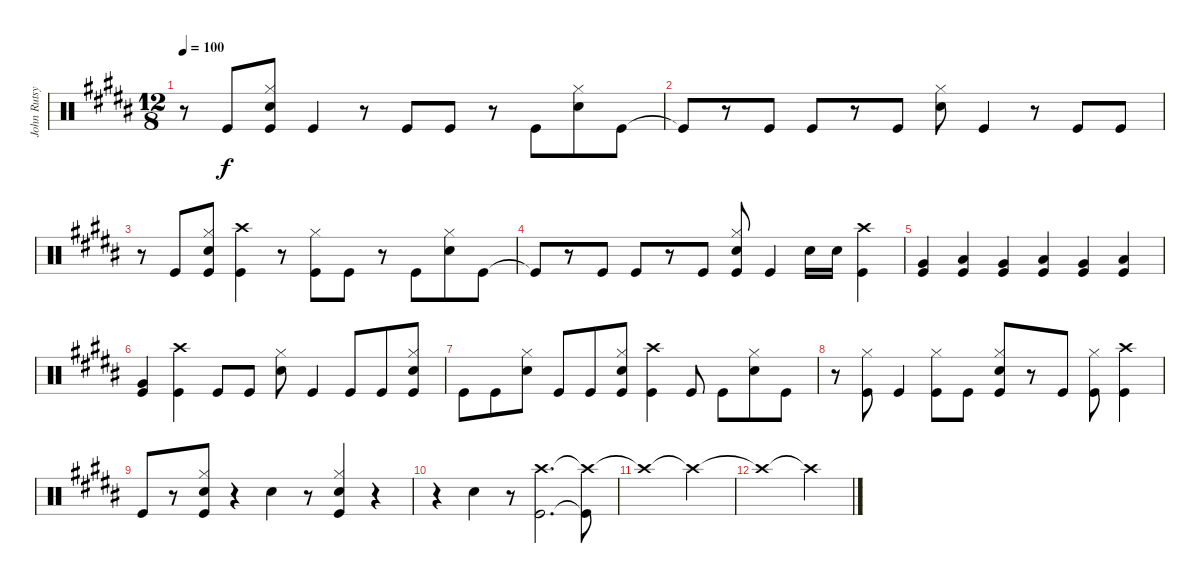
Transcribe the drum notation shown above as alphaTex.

\track ("John Rutsy Drums" "John Rutsy") {instrument percussion}
\staff {score}
\articulation defaults
\ts (12 8)
\tempo 100
\clef neutral
\ks b
r.8{dy f} "Kick (hit)".8 ("Hi-Hat (closed)" "Snare (hit) 2" "Kick (hit)").8 "Kick (hit)".4 r.8 "Kick (hit)".8 "Kick (hit)".8 r.8 "Kick (hit)".8 ("Hi-Hat (closed)" "Snare (hit) 2").8 "Kick (hit)".8 |
"Kick (hit)"{t}.8 r.8 "Kick (hit)".8 "Kick (hit)".8 r.8 "Kick (hit)".8 ("Hi-Hat (closed)" "Snare (hit) 2").8 "Kick (hit)".4 r.8 "Kick (hit)".8 "Kick (hit)".8 |
r.8 "Kick (hit)".8 ("Hi-Hat (closed)" "Snare (hit) 2" "Kick (hit)").8 ("Crash high (hit)" "Kick (hit)").4 r.8 ("Hi-Hat (closed)" "Kick (hit)").8 "Kick (hit)".8 r.8 "Kick (hit)".8 ("Hi-Hat (closed)" "Snare (hit) 2").8 "Kick (hit)".8 |
"Kick (hit)"{t}.8 r.8 "Kick (hit)".8 "Kick (hit)".8 r.8 "Kick (hit)".8 ("Hi-Hat (closed)" "Snare (hit) 2" "Kick (hit)").8 "Kick (hit)".4 "Snare (hit) 2".16 "Snare (hit) 2".16 ("Crash high (hit)" "Kick (hit)").4 |
("Very Low Tom (hit)" "Kick (hit)").4 ("Low Floor Tom (hit)" "Kick (hit)").4 ("Very Low Tom (hit)" "Kick (hit)").4 ("Low Floor Tom (hit)" "Kick (hit)").4 ("Very Low Tom (hit)" "Kick (hit)").4 ("Low Floor Tom (hit)" "Kick (hit)").4 |
("Very Low Tom (hit)" "Kick (hit)").4 ("Crash high (hit)" "Kick (hit)").4 "Kick (hit)".8 "Kick (hit)".8 ("Hi-Hat (closed)" "Snare (hit) 2").8 "Kick (hit)".4 "Kick (hit)".8 "Kick (hit)".8 ("Hi-Hat (closed)" "Snare (hit) 2" "Kick (hit)").8 |
"Kick (hit)".8 "Kick (hit)".8 ("Hi-Hat (closed)" "Snare (hit) 2").8 "Kick (hit)".8 "Kick (hit)".8 ("Hi-Hat (closed)" "Snare (hit) 2" "Kick (hit)").8 ("Crash high (hit)" "Kick (hit)").4 "Kick (hit)".8 "Kick (hit)".8 ("Hi-Hat (closed)" "Snare (hit) 2").8 "Kick (hit)".8 |
r.8 ("Hi-Hat (closed)" "Kick (hit)").8 "Kick (hit)".4 ("Hi-Hat (closed)" "Kick (hit)").8 "Kick (hit)".8 ("Hi-Hat (closed)" "Snare (hit) 2" "Kick (hit)").8 r.8 "Kick (hit)".8 ("Hi-Hat (closed)" "Kick (hit)").8 ("Crash high (hit)" "Kick (hit)").4 |
"Kick (hit)".8 r.8 ("Hi-Hat (closed)" "Snare (hit) 2" "Kick (hit)").8 r.4 "Snare (hit) 2".4 r.8 ("Hi-Hat (closed)" "Snare (hit) 2" "Kick (hit)").4 r.4 |
r.4 "Snare (hit) 2".4 r.8 ("Crash high (hit)" "Kick (hit)").2{d} ("Crash high (hit)"{t} "Kick (hit)"{t}).8 |
"Crash high (hit)"{t}.1 "Crash high (hit)"{t}.2 |
"Crash high (hit)"{t}.1 "Crash high (hit)"{t}.2
